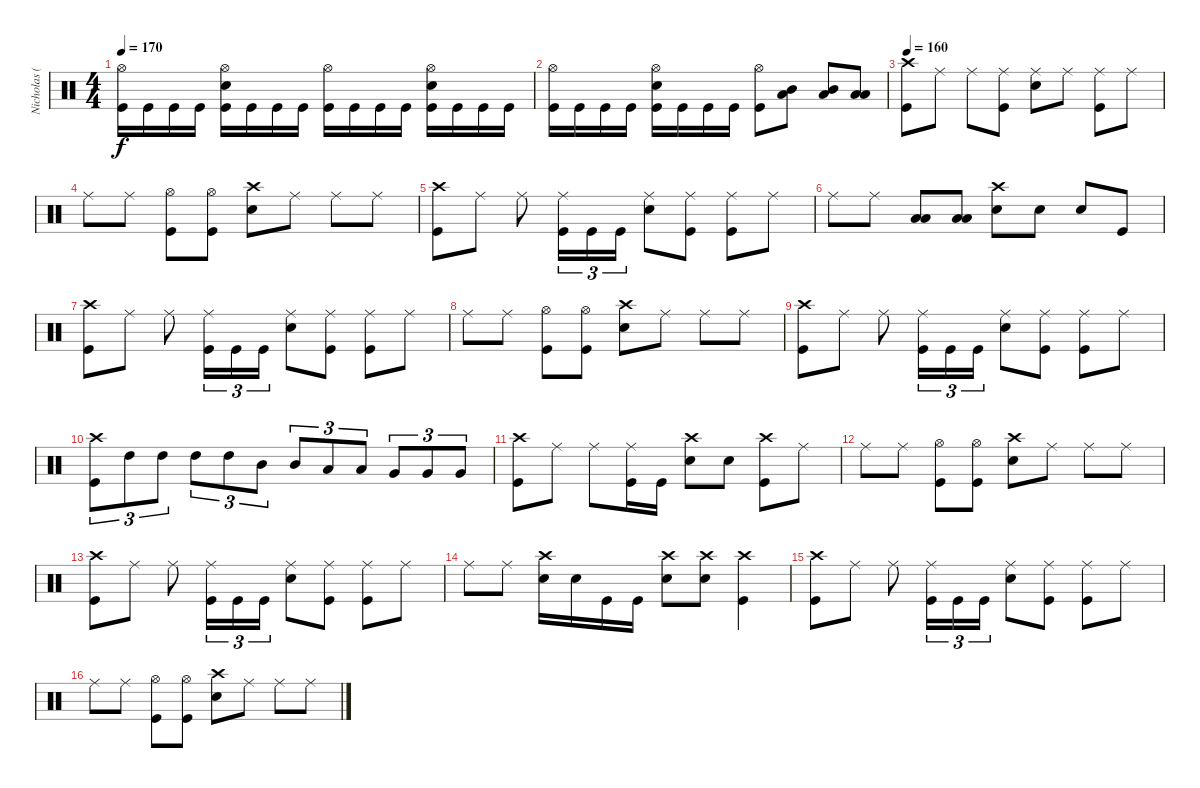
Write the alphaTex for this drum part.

\track ("Nicholas (Drums)" "Nicholas (") {instrument percussion}
\staff {score}
\articulation defaults
\ts (4 4)
\tempo 170
\clef neutral
\ks c
("Hi-Hat (open)" "Kick (hit)").16{dy f} "Kick (hit)".16 "Kick (hit)".16 "Kick (hit)".16 ("Hi-Hat (open)" "Electric Snare (hit)" "Kick (hit)").16 "Kick (hit)".16 "Kick (hit)".16 "Kick (hit)".16 ("Hi-Hat (open)" "Kick (hit)").16 "Kick (hit)".16 "Kick (hit)".16 "Kick (hit)".16 ("Hi-Hat (open)" "Electric Snare (hit)" "Kick (hit)").16 "Kick (hit)".16 "Kick (hit)".16 "Kick (hit)".16 |
("Hi-Hat (open)" "Kick (hit)").16 "Kick (hit)".16 "Kick (hit)".16 "Kick (hit)".16 ("Hi-Hat (open)" "Electric Snare (hit)" "Kick (hit)").16 "Kick (hit)".16 "Kick (hit)".16 "Kick (hit)".16 ("Hi-Hat (open)" "Kick (hit)").8 ("Mid Tom (hit)" "Low Floor Tom (hit)").8 ("Mid Tom (hit)" "Low Floor Tom (hit)").8 ("Low Tom (hit)" "Low Floor Tom (hit)").8 |
\tempo 160
("Crash high (hit)" "Kick (hit)").8 "Ride (middle)".8 "Ride (middle)".8 ("Ride (middle)" "Kick (hit)").8 ("Ride (middle)" "Electric Snare (hit)").8 "Ride (middle)".8 ("Ride (middle)" "Kick (hit)").8 "Ride (middle)".8 |
"Ride (middle)".8 "Ride (middle)".8 ("Hi-Hat (open)" "Kick (hit)").8 ("Hi-Hat (open)" "Kick (hit)").8 ("Crash high (hit)" "Electric Snare (hit)").8 "Ride (middle)".8 "Ride (middle)".8 "Ride (middle)".8 |
("Crash high (hit)" "Kick (hit)").8 "Ride (middle)".8 "Ride (middle)".8 ("Ride (middle)" "Kick (hit)").16{tu (3 2)} "Kick (hit)".16{tu (3 2)} "Kick (hit)".16{tu (3 2)} ("Ride (middle)" "Electric Snare (hit)").8 ("Ride (middle)" "Kick (hit)").8 ("Ride (middle)" "Kick (hit)").8 "Ride (middle)".8 |
"Ride (middle)".8 "Ride (middle)".8 ("Low Tom (hit)" "Low Floor Tom (hit)").8 ("Low Tom (hit)" "Low Floor Tom (hit)").8 ("Crash high (hit)" "Electric Snare (hit)").8 "Electric Snare (hit)".8 "Electric Snare (hit)".8 "Kick (hit)".8 |
("Crash high (hit)" "Kick (hit)").8 "Ride (middle)".8 "Ride (middle)".8 ("Ride (middle)" "Kick (hit)").16{tu (3 2)} "Kick (hit)".16{tu (3 2)} "Kick (hit)".16{tu (3 2)} ("Ride (middle)" "Electric Snare (hit)").8 ("Ride (middle)" "Kick (hit)").8 ("Ride (middle)" "Kick (hit)").8 "Ride (middle)".8 |
"Ride (middle)".8 "Ride (middle)".8 ("Hi-Hat (open)" "Kick (hit)").8 ("Hi-Hat (open)" "Kick (hit)").8 ("Crash high (hit)" "Electric Snare (hit)").8 "Ride (middle)".8 "Ride (middle)".8 "Ride (middle)".8 |
("Crash high (hit)" "Kick (hit)").8 "Ride (middle)".8 "Ride (middle)".8 ("Ride (middle)" "Kick (hit)").16{tu (3 2)} "Kick (hit)".16{tu (3 2)} "Kick (hit)".16{tu (3 2)} ("Ride (middle)" "Electric Snare (hit)").8 ("Ride (middle)" "Kick (hit)").8 ("Ride (middle)" "Kick (hit)").8 "Ride (middle)".8 |
("Crash high (hit)" "Kick (hit)").8{tu (3 2)} "High Tom (hit)".8{tu (3 2)} "High Tom (hit)".8{tu (3 2)} "High Tom (hit)".8{tu (3 2)} "High Tom (hit)".8{tu (3 2)} "Mid Tom (hit)".8{tu (3 2)} "Mid Tom (hit)".8{tu (3 2)} "Low Tom (hit)".8{tu (3 2)} "Low Tom (hit)".8{tu (3 2)} "Very Low Tom (hit)".8{tu (3 2)} "Very Low Tom (hit)".8{tu (3 2)} "Very Low Tom (hit)".8{tu (3 2)} |
("Crash high (hit)" "Kick (hit)").8 "Ride (middle)".8 "Ride (middle)".8 ("Ride (middle)" "Kick (hit)").16 "Kick (hit)".16 ("Crash high (hit)" "Electric Snare (hit)").8 "Electric Snare (hit)".8 ("Crash high (hit)" "Kick (hit)").8 "Ride (middle)".8 |
"Ride (middle)".8 "Ride (middle)".8 ("Hi-Hat (open)" "Kick (hit)").8 ("Hi-Hat (open)" "Kick (hit)").8 ("Crash high (hit)" "Electric Snare (hit)").8 "Ride (middle)".8 "Ride (middle)".8 "Ride (middle)".8 |
("Crash high (hit)" "Kick (hit)").8 "Ride (middle)".8 "Ride (middle)".8 ("Ride (middle)" "Kick (hit)").16{tu (3 2)} "Kick (hit)".16{tu (3 2)} "Kick (hit)".16{tu (3 2)} ("Ride (middle)" "Electric Snare (hit)").8 ("Ride (middle)" "Kick (hit)").8 ("Ride (middle)" "Kick (hit)").8 "Ride (middle)".8 |
"Ride (middle)".8 "Ride (middle)".8 ("Crash high (hit)" "Electric Snare (hit)").16 "Electric Snare (hit)".16 "Kick (hit)".16 "Kick (hit)".16 ("Crash high (hit)" "Electric Snare (hit)").8 ("Crash high (hit)" "Electric Snare (hit)").8 ("Crash high (hit)" "Kick (hit)").4 |
("Crash high (hit)" "Kick (hit)").8 "Ride (middle)".8 "Ride (middle)".8 ("Ride (middle)" "Kick (hit)").16{tu (3 2)} "Kick (hit)".16{tu (3 2)} "Kick (hit)".16{tu (3 2)} ("Ride (middle)" "Electric Snare (hit)").8 ("Ride (middle)" "Kick (hit)").8 ("Ride (middle)" "Kick (hit)").8 "Ride (middle)".8 |
"Ride (middle)".8 "Ride (middle)".8 ("Hi-Hat (open)" "Kick (hit)").8 ("Hi-Hat (open)" "Kick (hit)").8 ("Crash high (hit)" "Electric Snare (hit)").8 "Ride (middle)".8 "Ride (middle)".8 "Ride (middle)".8
